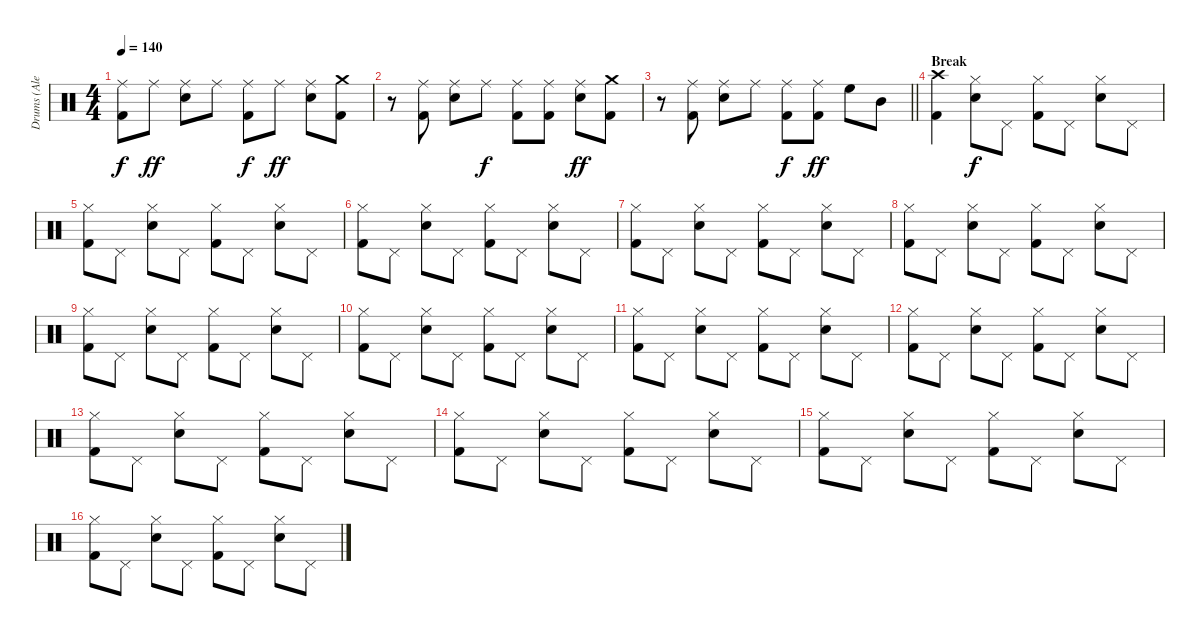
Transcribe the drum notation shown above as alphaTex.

\track ("Drums (Alex Van Halen)" "Drums (Ale") {instrument percussion}
\staff {score}
\articulation defaults
\ts (4 4)
\tempo 140
\clef neutral
\ks c
("Ride (middle)" "Kick (hit) 2").8{dy f} "Ride (middle)".8{dy ff} ("Ride (middle)" "Electric Snare (hit)").8 "Ride (middle)".8 ("Ride (middle)" "Kick (hit) 2").8{dy f} "Ride (middle)".8{dy ff} ("Ride (middle)" "Electric Snare (hit)").8 ("Crash medium (hit)" "Kick (hit) 2").8 |
r.8 ("Ride (middle)" "Kick (hit) 2").8 ("Ride (middle)" "Electric Snare (hit)").8 "Ride (middle)".8{dy f} ("Ride (middle)" "Kick (hit) 2").8 ("Ride (middle)" "Kick (hit) 2").8 ("Ride (middle)" "Electric Snare (hit)").8{dy ff} ("Crash medium (hit)" "Kick (hit) 2").8 |
\barLineRight lightlight
r.8 ("Ride (middle)" "Kick (hit) 2").8 ("Ride (middle)" "Electric Snare (hit)").8 "Ride (middle)".8 ("Ride (middle)" "Kick (hit) 2").8{dy f} ("Ride (middle)" "Kick (hit) 2").8{dy ff} "High Floor Tom (hit)".8 "Mid Tom (hit)".8 |
\section ("" "Break")
("Kick (hit) 2" "Crash high (hit)").4 ("Snare (hit) 2" "Hi-Hat (closed)").8{dy f volume 12} "Pedal Hi-Hat (hit)".8 ("Kick (hit) 2" "Hi-Hat (closed)").8 "Pedal Hi-Hat (hit)".8 ("Snare (hit) 2" "Hi-Hat (closed)").8 "Pedal Hi-Hat (hit)".8 |
("Kick (hit) 2" "Hi-Hat (closed)").8 "Pedal Hi-Hat (hit)".8 ("Snare (hit) 2" "Hi-Hat (closed)").8 "Pedal Hi-Hat (hit)".8 ("Kick (hit) 2" "Hi-Hat (closed)").8 "Pedal Hi-Hat (hit)".8 ("Snare (hit) 2" "Hi-Hat (closed)").8 "Pedal Hi-Hat (hit)".8 |
("Kick (hit) 2" "Hi-Hat (closed)").8 "Pedal Hi-Hat (hit)".8 ("Snare (hit) 2" "Hi-Hat (closed)").8 "Pedal Hi-Hat (hit)".8 ("Kick (hit) 2" "Hi-Hat (closed)").8 "Pedal Hi-Hat (hit)".8 ("Snare (hit) 2" "Hi-Hat (closed)").8 "Pedal Hi-Hat (hit)".8 |
("Kick (hit) 2" "Hi-Hat (closed)").8 "Pedal Hi-Hat (hit)".8 ("Snare (hit) 2" "Hi-Hat (closed)").8 "Pedal Hi-Hat (hit)".8 ("Kick (hit) 2" "Hi-Hat (closed)").8 "Pedal Hi-Hat (hit)".8 ("Snare (hit) 2" "Hi-Hat (closed)").8 "Pedal Hi-Hat (hit)".8 |
("Kick (hit) 2" "Hi-Hat (closed)").8 "Pedal Hi-Hat (hit)".8 ("Snare (hit) 2" "Hi-Hat (closed)").8 "Pedal Hi-Hat (hit)".8 ("Kick (hit) 2" "Hi-Hat (closed)").8 "Pedal Hi-Hat (hit)".8 ("Snare (hit) 2" "Hi-Hat (closed)").8 "Pedal Hi-Hat (hit)".8 |
("Kick (hit) 2" "Hi-Hat (closed)").8 "Pedal Hi-Hat (hit)".8 ("Snare (hit) 2" "Hi-Hat (closed)").8 "Pedal Hi-Hat (hit)".8 ("Kick (hit) 2" "Hi-Hat (closed)").8 "Pedal Hi-Hat (hit)".8 ("Snare (hit) 2" "Hi-Hat (closed)").8 "Pedal Hi-Hat (hit)".8 |
("Kick (hit) 2" "Hi-Hat (closed)").8 "Pedal Hi-Hat (hit)".8 ("Snare (hit) 2" "Hi-Hat (closed)").8 "Pedal Hi-Hat (hit)".8 ("Kick (hit) 2" "Hi-Hat (closed)").8 "Pedal Hi-Hat (hit)".8 ("Snare (hit) 2" "Hi-Hat (closed)").8 "Pedal Hi-Hat (hit)".8 |
("Kick (hit) 2" "Hi-Hat (closed)").8 "Pedal Hi-Hat (hit)".8 ("Snare (hit) 2" "Hi-Hat (closed)").8 "Pedal Hi-Hat (hit)".8 ("Kick (hit) 2" "Hi-Hat (closed)").8 "Pedal Hi-Hat (hit)".8 ("Snare (hit) 2" "Hi-Hat (closed)").8 "Pedal Hi-Hat (hit)".8 |
("Kick (hit) 2" "Hi-Hat (closed)").8 "Pedal Hi-Hat (hit)".8 ("Snare (hit) 2" "Hi-Hat (closed)").8 "Pedal Hi-Hat (hit)".8 ("Kick (hit) 2" "Hi-Hat (closed)").8 "Pedal Hi-Hat (hit)".8 ("Snare (hit) 2" "Hi-Hat (closed)").8 "Pedal Hi-Hat (hit)".8 |
("Kick (hit) 2" "Hi-Hat (closed)").8 "Pedal Hi-Hat (hit)".8 ("Snare (hit) 2" "Hi-Hat (closed)").8 "Pedal Hi-Hat (hit)".8 ("Kick (hit) 2" "Hi-Hat (closed)").8 "Pedal Hi-Hat (hit)".8 ("Snare (hit) 2" "Hi-Hat (closed)").8 "Pedal Hi-Hat (hit)".8 |
("Kick (hit) 2" "Hi-Hat (closed)").8 "Pedal Hi-Hat (hit)".8 ("Snare (hit) 2" "Hi-Hat (closed)").8 "Pedal Hi-Hat (hit)".8 ("Kick (hit) 2" "Hi-Hat (closed)").8 "Pedal Hi-Hat (hit)".8 ("Snare (hit) 2" "Hi-Hat (closed)").8 "Pedal Hi-Hat (hit)".8 |
("Kick (hit) 2" "Hi-Hat (closed)").8 "Pedal Hi-Hat (hit)".8 ("Snare (hit) 2" "Hi-Hat (closed)").8 "Pedal Hi-Hat (hit)".8 ("Kick (hit) 2" "Hi-Hat (closed)").8 "Pedal Hi-Hat (hit)".8 ("Snare (hit) 2" "Hi-Hat (closed)").8 "Pedal Hi-Hat (hit)".8 |
("Kick (hit) 2" "Hi-Hat (closed)").8 "Pedal Hi-Hat (hit)".8 ("Snare (hit) 2" "Hi-Hat (closed)").8 "Pedal Hi-Hat (hit)".8 ("Kick (hit) 2" "Hi-Hat (closed)").8 "Pedal Hi-Hat (hit)".8 ("Snare (hit) 2" "Hi-Hat (closed)").8 "Pedal Hi-Hat (hit)".8
